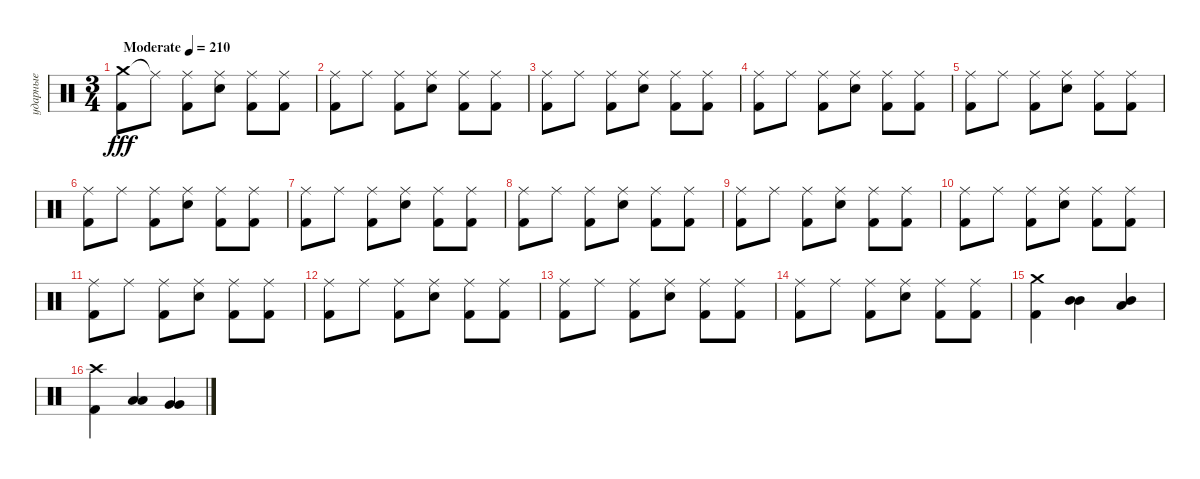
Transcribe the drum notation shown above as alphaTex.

\track ("ударные" "ударные") {instrument percussion}
\staff {score}
\articulation defaults
\ts (3 4)
\tempo (210 "Moderate")
\clef neutral
\ks c
("Crash medium (hit)" "Kick (hit) 2").8{dy fff} "Ride (middle)"{t}.8 ("Ride (middle)" "Kick (hit) 2").8 ("Ride (middle)" "Snare (hit) 2").8 ("Ride (middle)" "Kick (hit) 2").8 ("Ride (middle)" "Kick (hit) 2").8 |
("Ride (middle)" "Kick (hit) 2").8 "Ride (middle)".8 ("Ride (middle)" "Kick (hit) 2").8 ("Ride (middle)" "Snare (hit) 2").8 ("Ride (middle)" "Kick (hit) 2").8 ("Ride (middle)" "Kick (hit) 2").8 |
("Ride (middle)" "Kick (hit) 2").8 "Ride (middle)".8 ("Ride (middle)" "Kick (hit) 2").8 ("Ride (middle)" "Snare (hit) 2").8 ("Ride (middle)" "Kick (hit) 2").8 ("Ride (middle)" "Kick (hit) 2").8 |
("Ride (middle)" "Kick (hit) 2").8 "Ride (middle)".8 ("Ride (middle)" "Kick (hit) 2").8 ("Ride (middle)" "Snare (hit) 2").8 ("Ride (middle)" "Kick (hit) 2").8 ("Ride (middle)" "Kick (hit) 2").8 |
("Ride (middle)" "Kick (hit) 2").8 "Ride (middle)".8 ("Ride (middle)" "Kick (hit) 2").8 ("Ride (middle)" "Snare (hit) 2").8 ("Ride (middle)" "Kick (hit) 2").8 ("Ride (middle)" "Kick (hit) 2").8 |
("Ride (middle)" "Kick (hit) 2").8 "Ride (middle)".8 ("Ride (middle)" "Kick (hit) 2").8 ("Ride (middle)" "Snare (hit) 2").8 ("Ride (middle)" "Kick (hit) 2").8 ("Ride (middle)" "Kick (hit) 2").8 |
("Ride (middle)" "Kick (hit) 2").8 "Ride (middle)".8 ("Ride (middle)" "Kick (hit) 2").8 ("Ride (middle)" "Snare (hit) 2").8 ("Ride (middle)" "Kick (hit) 2").8 ("Ride (middle)" "Kick (hit) 2").8 |
("Ride (middle)" "Kick (hit) 2").8 "Ride (middle)".8 ("Ride (middle)" "Kick (hit) 2").8 ("Ride (middle)" "Snare (hit) 2").8 ("Ride (middle)" "Kick (hit) 2").8 ("Ride (middle)" "Kick (hit) 2").8 |
("Ride (middle)" "Kick (hit) 2").8 "Ride (middle)".8 ("Ride (middle)" "Kick (hit) 2").8 ("Ride (middle)" "Snare (hit) 2").8 ("Ride (middle)" "Kick (hit) 2").8 ("Ride (middle)" "Kick (hit) 2").8 |
("Ride (middle)" "Kick (hit) 2").8 "Ride (middle)".8 ("Ride (middle)" "Kick (hit) 2").8 ("Ride (middle)" "Snare (hit) 2").8 ("Ride (middle)" "Kick (hit) 2").8 ("Ride (middle)" "Kick (hit) 2").8 |
("Ride (middle)" "Kick (hit) 2").8 "Ride (middle)".8 ("Ride (middle)" "Kick (hit) 2").8 ("Ride (middle)" "Snare (hit) 2").8 ("Ride (middle)" "Kick (hit) 2").8 ("Ride (middle)" "Kick (hit) 2").8 |
("Ride (middle)" "Kick (hit) 2").8 "Ride (middle)".8 ("Ride (middle)" "Kick (hit) 2").8 ("Ride (middle)" "Snare (hit) 2").8 ("Ride (middle)" "Kick (hit) 2").8 ("Ride (middle)" "Kick (hit) 2").8 |
("Ride (middle)" "Kick (hit) 2").8 "Ride (middle)".8 ("Ride (middle)" "Kick (hit) 2").8 ("Ride (middle)" "Snare (hit) 2").8 ("Ride (middle)" "Kick (hit) 2").8 ("Ride (middle)" "Kick (hit) 2").8 |
("Ride (middle)" "Kick (hit) 2").8 "Ride (middle)".8 ("Ride (middle)" "Kick (hit) 2").8 ("Ride (middle)" "Snare (hit) 2").8 ("Ride (middle)" "Kick (hit) 2").8 ("Ride (middle)" "Kick (hit) 2").8 |
("Crash medium (hit)" "Kick (hit) 2").4 ("Mid Tom (hit)" "Mid Tom (hit)").4{bd 60} ("Mid Tom (hit)" "Low Tom (hit)").4{bd 60} |
("Crash high (hit)" "Kick (hit) 2").4 ("Low Tom (hit)" "Low Tom (hit)").4{bd 60} ("Very Low Tom (hit)" "Very Low Tom (hit)").4{bd 60}
